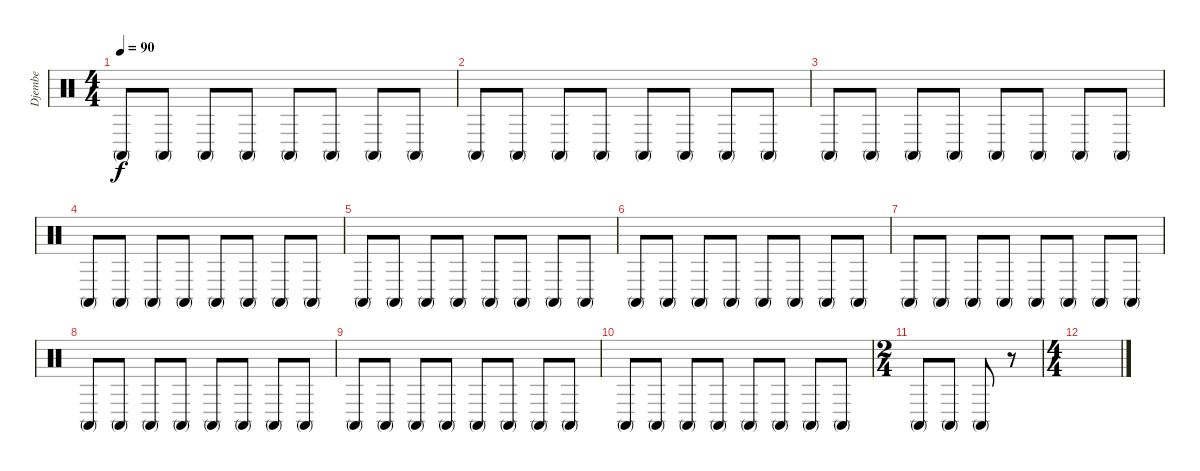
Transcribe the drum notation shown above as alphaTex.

\track ("Djembe" "Djembe") {instrument percussion}
\staff {score}
\articulation defaults
\ts (4 4)
\tempo 90
\clef neutral
\ks c "Conga high (mute)".8{dy f} "Conga high (mute)".8 "Conga high (mute)".8 "Conga high (mute)".8 "Conga high (mute)".8 "Conga high (mute)".8 "Conga high (mute)".8 "Conga high (mute)".8
|
"Conga high (mute)".8 "Conga high (mute)".8 "Conga high (mute)".8 "Conga high (mute)".8 "Conga high (mute)".8 "Conga high (mute)".8 "Conga high (mute)".8 "Conga high (mute)".8 |
"Conga high (mute)".8 "Conga high (mute)".8 "Conga high (mute)".8 "Conga high (mute)".8 "Conga high (mute)".8 "Conga high (mute)".8 "Conga high (mute)".8 "Conga high (mute)".8 |
"Conga high (mute)".8 "Conga high (mute)".8 "Conga high (mute)".8 "Conga high (mute)".8 "Conga high (mute)".8 "Conga high (mute)".8 "Conga high (mute)".8 "Conga high (mute)".8 |
"Conga high (mute)".8 "Conga high (mute)".8 "Conga high (mute)".8 "Conga high (mute)".8 "Conga high (mute)".8 "Conga high (mute)".8 "Conga high (mute)".8 "Conga high (mute)".8 |
"Conga high (mute)".8 "Conga high (mute)".8 "Conga high (mute)".8 "Conga high (mute)".8 "Conga high (mute)".8 "Conga high (mute)".8 "Conga high (mute)".8 "Conga high (mute)".8 |
"Conga high (mute)".8 "Conga high (mute)".8 "Conga high (mute)".8 "Conga high (mute)".8 "Conga high (mute)".8 "Conga high (mute)".8 "Conga high (mute)".8 "Conga high (mute)".8 |
"Conga high (mute)".8 "Conga high (mute)".8 "Conga high (mute)".8 "Conga high (mute)".8 "Conga high (mute)".8 "Conga high (mute)".8 "Conga high (mute)".8 "Conga high (mute)".8 |
"Conga high (mute)".8 "Conga high (mute)".8 "Conga high (mute)".8 "Conga high (mute)".8 "Conga high (mute)".8 "Conga high (mute)".8 "Conga high (mute)".8 "Conga high (mute)".8 |
"Conga high (mute)".8 "Conga high (mute)".8 "Conga high (mute)".8 "Conga high (mute)".8 "Conga high (mute)".8 "Conga high (mute)".8 "Conga high (mute)".8 "Conga high (mute)".8 |
\ts (2 4)
"Conga high (mute)".8 "Conga high (mute)".8 "Conga high (mute)".8 r.8 |
\ts (4 4)
